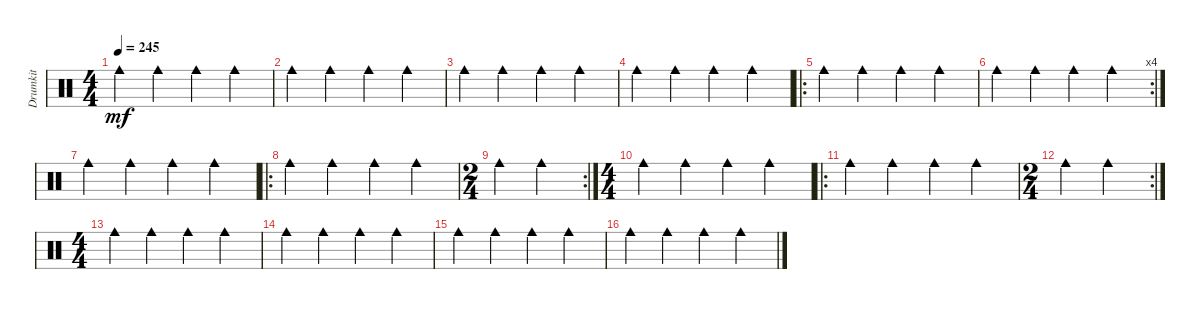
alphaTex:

\track ("Drumkit" "Drumkit") {instrument percussion}
\staff {score}
\articulation defaults
\ts (4 4)
\tempo 245
\clef neutral
\ks c "Cowbell medium (hit)".4{dy mf} "Cowbell medium (hit)".4 "Cowbell medium (hit)".4 "Cowbell medium (hit)".4
|
"Cowbell medium (hit)".4 "Cowbell medium (hit)".4 "Cowbell medium (hit)".4 "Cowbell medium (hit)".4 |
"Cowbell medium (hit)".4 "Cowbell medium (hit)".4 "Cowbell medium (hit)".4 "Cowbell medium (hit)".4 |
"Cowbell medium (hit)".4 "Cowbell medium (hit)".4 "Cowbell medium (hit)".4 "Cowbell medium (hit)".4 |
\ro "Cowbell medium (hit)".4 "Cowbell medium (hit)".4 "Cowbell medium (hit)".4 "Cowbell medium (hit)".4
|
\rc 4 "Cowbell medium (hit)".4 "Cowbell medium (hit)".4 "Cowbell medium (hit)".4 "Cowbell medium (hit)".4
|
"Cowbell medium (hit)".4 "Cowbell medium (hit)".4 "Cowbell medium (hit)".4 "Cowbell medium (hit)".4 |
\ro "Cowbell medium (hit)".4 "Cowbell medium (hit)".4 "Cowbell medium (hit)".4 "Cowbell medium (hit)".4
|
\rc 2
\ts (2 4)
"Cowbell medium (hit)".4 "Cowbell medium (hit)".4 |
\ts (4 4)
"Cowbell medium (hit)".4 "Cowbell medium (hit)".4 "Cowbell medium (hit)".4 "Cowbell medium (hit)".4 |
\ro "Cowbell medium (hit)".4 "Cowbell medium (hit)".4 "Cowbell medium (hit)".4 "Cowbell medium (hit)".4
|
\rc 2
\ts (2 4)
"Cowbell medium (hit)".4 "Cowbell medium (hit)".4 |
\ts (4 4)
"Cowbell medium (hit)".4 "Cowbell medium (hit)".4 "Cowbell medium (hit)".4 "Cowbell medium (hit)".4 |
"Cowbell medium (hit)".4 "Cowbell medium (hit)".4 "Cowbell medium (hit)".4 "Cowbell medium (hit)".4 |
"Cowbell medium (hit)".4 "Cowbell medium (hit)".4 "Cowbell medium (hit)".4 "Cowbell medium (hit)".4 |
"Cowbell medium (hit)".4 "Cowbell medium (hit)".4 "Cowbell medium (hit)".4 "Cowbell medium (hit)".4
